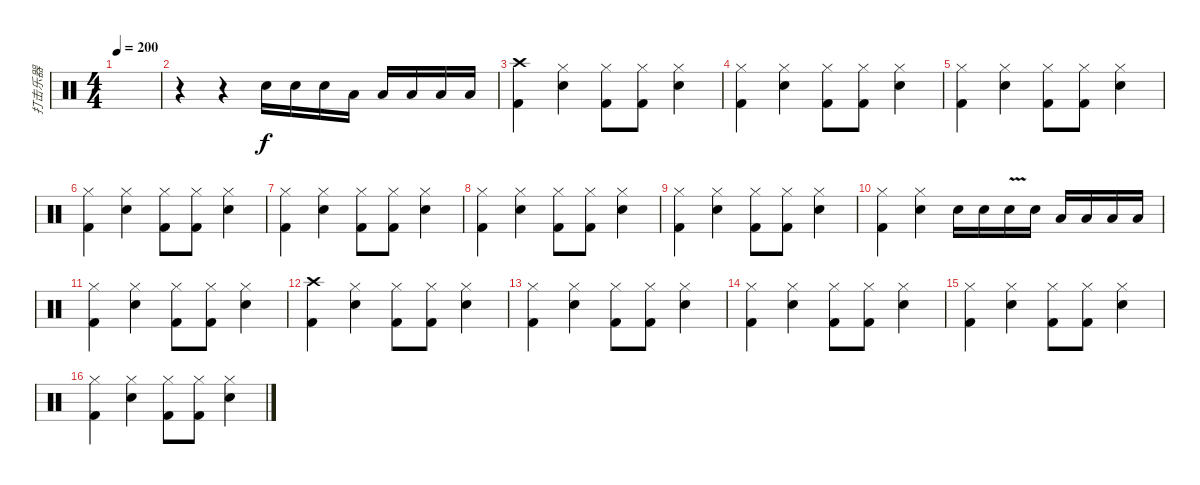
\track ("打击乐器" "打击乐器") {instrument percussion}
\staff {score}
\articulation defaults
\ts (4 4)
\tempo 200
\clef neutral
\ks c
|
r.4 r.4 "Snare (hit) 2".16 "Snare (hit) 2".16 "Snare (hit) 2".16 "Low Floor Tom (hit)".16 "Low Floor Tom (hit)".16 "Low Floor Tom (hit)".16 "Low Tom (hit)".16 "Low Tom (hit)".16 |
("Crash high (hit)" "Kick (hit) 2").4 ("Hi-Hat (closed)" "Snare (hit) 2").4 ("Hi-Hat (closed)" "Kick (hit) 2").8 ("Hi-Hat (closed)" "Kick (hit) 2").8 ("Hi-Hat (closed)" "Snare (hit) 2").4 |
("Hi-Hat (closed)" "Kick (hit) 2").4 ("Hi-Hat (closed)" "Snare (hit) 2").4 ("Hi-Hat (closed)" "Kick (hit) 2").8 ("Hi-Hat (closed)" "Kick (hit) 2").8 ("Hi-Hat (closed)" "Snare (hit) 2").4 |
("Hi-Hat (closed)" "Kick (hit) 2").4 ("Hi-Hat (closed)" "Snare (hit) 2").4 ("Hi-Hat (closed)" "Kick (hit) 2").8 ("Hi-Hat (closed)" "Kick (hit) 2").8 ("Hi-Hat (closed)" "Snare (hit) 2").4 |
("Hi-Hat (closed)" "Kick (hit) 2").4 ("Hi-Hat (closed)" "Snare (hit) 2").4 ("Hi-Hat (closed)" "Kick (hit) 2").8 ("Hi-Hat (closed)" "Kick (hit) 2").8 ("Hi-Hat (closed)" "Snare (hit) 2").4 |
("Hi-Hat (closed)" "Kick (hit) 2").4 ("Hi-Hat (closed)" "Snare (hit) 2").4 ("Hi-Hat (closed)" "Kick (hit) 2").8 ("Hi-Hat (closed)" "Kick (hit) 2").8 ("Hi-Hat (closed)" "Snare (hit) 2").4 |
("Hi-Hat (closed)" "Kick (hit) 2").4 ("Hi-Hat (closed)" "Snare (hit) 2").4 ("Hi-Hat (closed)" "Kick (hit) 2").8 ("Hi-Hat (closed)" "Kick (hit) 2").8 ("Hi-Hat (closed)" "Snare (hit) 2").4 |
("Hi-Hat (closed)" "Kick (hit) 2").4 ("Hi-Hat (closed)" "Snare (hit) 2").4 ("Hi-Hat (closed)" "Kick (hit) 2").8 ("Hi-Hat (closed)" "Kick (hit) 2").8 ("Hi-Hat (closed)" "Snare (hit) 2").4 |
("Hi-Hat (closed)" "Kick (hit) 2").4 ("Hi-Hat (closed)" "Snare (hit) 2").4 "Snare (hit) 2".16 "Snare (hit) 2".16 "Snare (hit) 2"{v}.16 "Snare (hit) 2".16 "Low Floor Tom (hit)".16 "Low Floor Tom (hit)".16 "Low Tom (hit)".16 "Low Tom (hit)".16 |
("Hi-Hat (closed)" "Kick (hit) 2").4 ("Hi-Hat (closed)" "Snare (hit) 2").4 ("Hi-Hat (closed)" "Kick (hit) 2").8 ("Hi-Hat (closed)" "Kick (hit) 2").8 ("Hi-Hat (closed)" "Snare (hit) 2").4 |
("Crash high (hit)" "Kick (hit) 2").4 ("Hi-Hat (closed)" "Snare (hit) 2").4 ("Hi-Hat (closed)" "Kick (hit) 2").8 ("Hi-Hat (closed)" "Kick (hit) 2").8 ("Hi-Hat (closed)" "Snare (hit) 2").4 |
("Hi-Hat (closed)" "Kick (hit) 2").4 ("Hi-Hat (closed)" "Snare (hit) 2").4 ("Hi-Hat (closed)" "Kick (hit) 2").8 ("Hi-Hat (closed)" "Kick (hit) 2").8 ("Hi-Hat (closed)" "Snare (hit) 2").4 |
("Hi-Hat (closed)" "Kick (hit) 2").4 ("Hi-Hat (closed)" "Snare (hit) 2").4 ("Hi-Hat (closed)" "Kick (hit) 2").8 ("Hi-Hat (closed)" "Kick (hit) 2").8 ("Hi-Hat (closed)" "Snare (hit) 2").4 |
("Hi-Hat (closed)" "Kick (hit) 2").4 ("Hi-Hat (closed)" "Snare (hit) 2").4 ("Hi-Hat (closed)" "Kick (hit) 2").8 ("Hi-Hat (closed)" "Kick (hit) 2").8 ("Hi-Hat (closed)" "Snare (hit) 2").4 |
("Hi-Hat (closed)" "Kick (hit) 2").4 ("Hi-Hat (closed)" "Snare (hit) 2").4 ("Hi-Hat (closed)" "Kick (hit) 2").8 ("Hi-Hat (closed)" "Kick (hit) 2").8 ("Hi-Hat (closed)" "Snare (hit) 2").4
